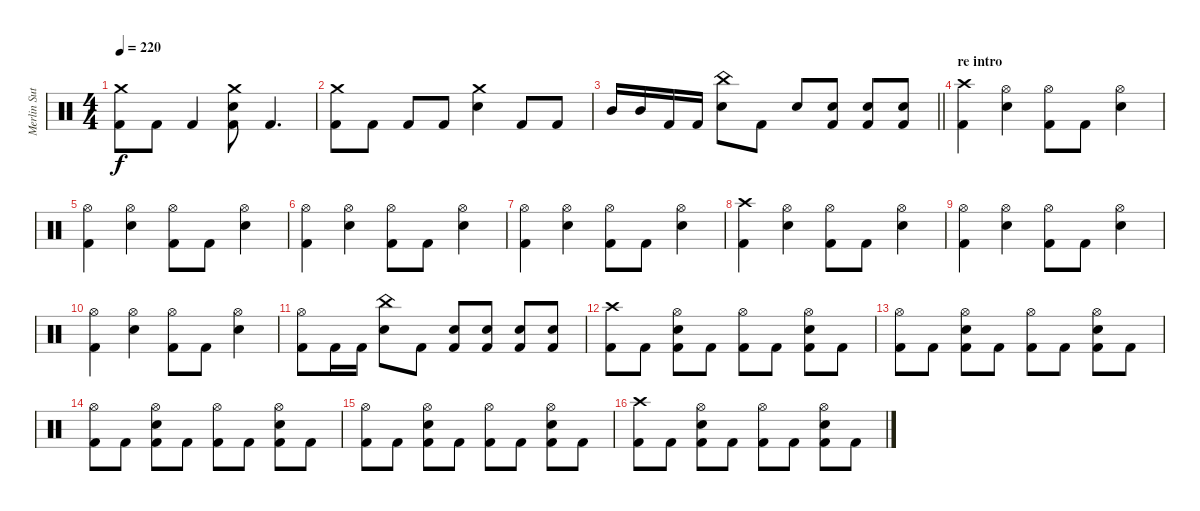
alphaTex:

\track ("Merlin Sutter" "Merlin Sut") {instrument percussion}
\staff {score}
\articulation defaults
\ts (4 4)
\tempo 220
\clef neutral
\ks c
("Crash medium (hit)" "Kick (hit) 2").8{dy f} "Kick (hit) 2".8 "Kick (hit) 2".4 ("Crash medium (hit)" "Snare (hit) 2" "Kick (hit) 2").8 "Kick (hit) 2".4{d} |
("Crash medium (hit)" "Kick (hit) 2").8 "Kick (hit) 2".8 "Kick (hit) 2".8 "Kick (hit) 2".8 ("Crash medium (hit)" "Snare (hit) 2").4 "Kick (hit) 2".8 "Kick (hit) 2".8 |
\barLineRight lightlight "Mid Tom (hit)".16 "Mid Tom (hit)".16 "Kick (hit) 2".16 "Kick (hit) 2".16
("China (hit)" "Snare (hit) 2").8 "Kick (hit) 2".8 "Snare (hit) 2".8 ("Snare (hit) 2" "Kick (hit) 2").8 ("Snare (hit) 2" "Kick (hit) 2").8 ("Snare (hit) 2" "Kick (hit) 2").8 |
\section ("" "re intro")
("Crash high (hit)" "Kick (hit) 2").4 ("Hi-Hat (open)" "Snare (hit) 2").4 ("Hi-Hat (open)" "Kick (hit) 2").8 "Kick (hit) 2".8 ("Hi-Hat (open)" "Snare (hit) 2").4 |
("Hi-Hat (open)" "Kick (hit) 2").4 ("Hi-Hat (open)" "Snare (hit) 2").4 ("Hi-Hat (open)" "Kick (hit) 2").8 "Kick (hit) 2".8 ("Hi-Hat (open)" "Snare (hit) 2").4 |
("Hi-Hat (open)" "Kick (hit) 2").4 ("Hi-Hat (open)" "Snare (hit) 2").4 ("Hi-Hat (open)" "Kick (hit) 2").8 "Kick (hit) 2".8 ("Hi-Hat (open)" "Snare (hit) 2").4 |
("Hi-Hat (open)" "Kick (hit) 2").4 ("Hi-Hat (open)" "Snare (hit) 2").4 ("Hi-Hat (open)" "Kick (hit) 2").8 "Kick (hit) 2".8 ("Hi-Hat (open)" "Snare (hit) 2").4 |
("Crash high (hit)" "Kick (hit) 2").4 ("Hi-Hat (open)" "Snare (hit) 2").4 ("Hi-Hat (open)" "Kick (hit) 2").8 "Kick (hit) 2".8 ("Hi-Hat (open)" "Snare (hit) 2").4 |
("Hi-Hat (open)" "Kick (hit) 2").4 ("Hi-Hat (open)" "Snare (hit) 2").4 ("Hi-Hat (open)" "Kick (hit) 2").8 "Kick (hit) 2".8 ("Hi-Hat (open)" "Snare (hit) 2").4 |
("Hi-Hat (open)" "Kick (hit) 2").4 ("Hi-Hat (open)" "Snare (hit) 2").4 ("Hi-Hat (open)" "Kick (hit) 2").8 "Kick (hit) 2".8 ("Hi-Hat (open)" "Snare (hit) 2").4 |
("Hi-Hat (open)" "Kick (hit) 2").8 "Kick (hit) 2".16 "Kick (hit) 2".16 ("China (hit)" "Snare (hit) 2").8 "Kick (hit) 2".8 ("Snare (hit) 2" "Kick (hit) 2").8 ("Snare (hit) 2" "Kick (hit) 2").8 ("Snare (hit) 2" "Kick (hit) 2").8 ("Snare (hit) 2" "Kick (hit) 2").8 |
("Crash high (hit)" "Kick (hit) 2").8 "Kick (hit) 2".8 ("Hi-Hat (open)" "Snare (hit) 2" "Kick (hit) 2").8 "Kick (hit) 2".8 ("Hi-Hat (open)" "Kick (hit) 2").8 "Kick (hit) 2".8 ("Hi-Hat (open)" "Snare (hit) 2" "Kick (hit) 2").8 "Kick (hit) 2".8 |
("Hi-Hat (open)" "Kick (hit) 2").8 "Kick (hit) 2".8 ("Hi-Hat (open)" "Snare (hit) 2" "Kick (hit) 2").8 "Kick (hit) 2".8 ("Hi-Hat (open)" "Kick (hit) 2").8 "Kick (hit) 2".8 ("Hi-Hat (open)" "Snare (hit) 2" "Kick (hit) 2").8 "Kick (hit) 2".8 |
("Hi-Hat (open)" "Kick (hit) 2").8 "Kick (hit) 2".8 ("Hi-Hat (open)" "Snare (hit) 2" "Kick (hit) 2").8 "Kick (hit) 2".8 ("Hi-Hat (open)" "Kick (hit) 2").8 "Kick (hit) 2".8 ("Hi-Hat (open)" "Snare (hit) 2" "Kick (hit) 2").8 "Kick (hit) 2".8 |
("Hi-Hat (open)" "Kick (hit) 2").8 "Kick (hit) 2".8 ("Hi-Hat (open)" "Snare (hit) 2" "Kick (hit) 2").8 "Kick (hit) 2".8 ("Hi-Hat (open)" "Kick (hit) 2").8 "Kick (hit) 2".8 ("Hi-Hat (open)" "Snare (hit) 2" "Kick (hit) 2").8 "Kick (hit) 2".8 |
("Crash high (hit)" "Kick (hit) 2").8 "Kick (hit) 2".8 ("Hi-Hat (open)" "Snare (hit) 2" "Kick (hit) 2").8 "Kick (hit) 2".8 ("Hi-Hat (open)" "Kick (hit) 2").8 "Kick (hit) 2".8 ("Hi-Hat (open)" "Snare (hit) 2" "Kick (hit) 2").8 "Kick (hit) 2".8
